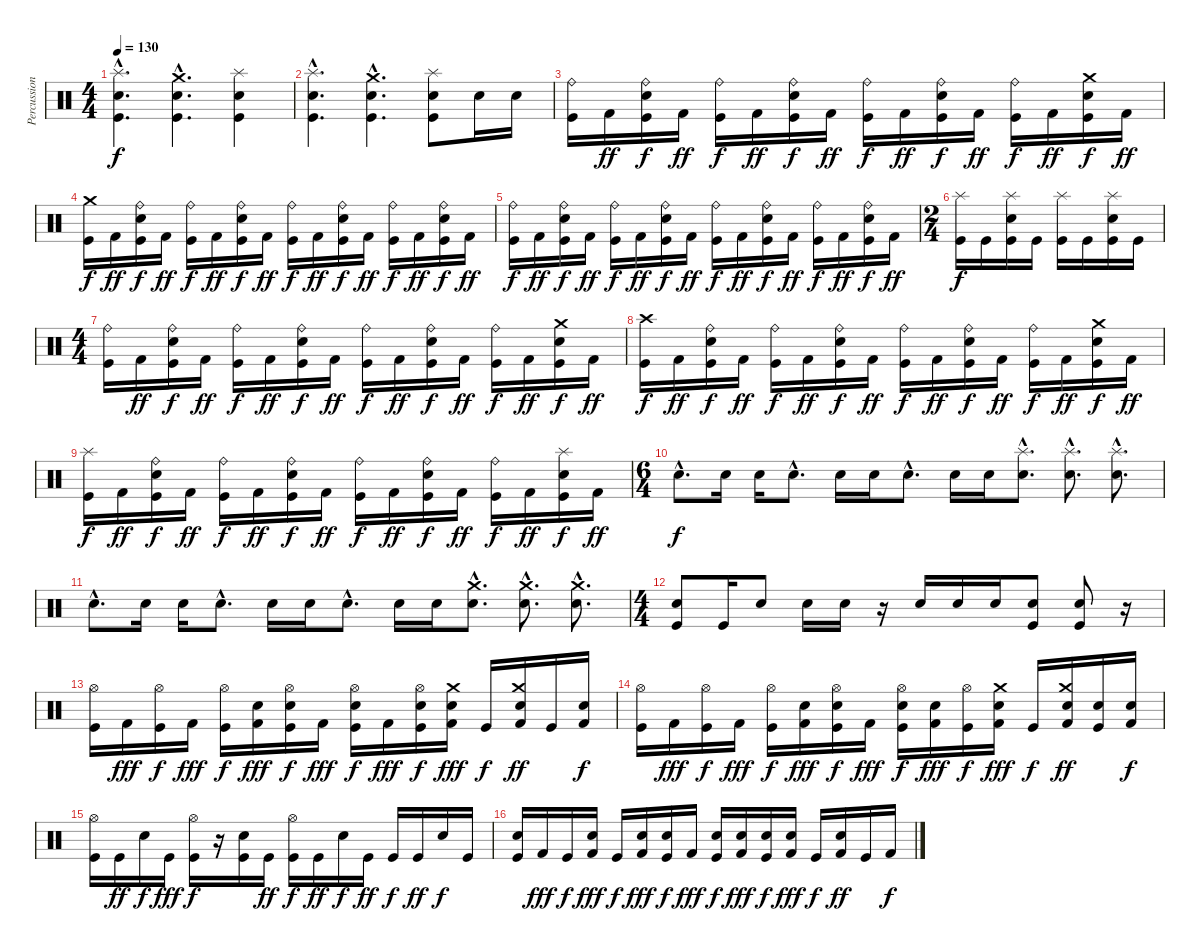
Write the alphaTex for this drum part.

\track ("Percussioni" "Percussion") {instrument percussion}
\staff {score}
\articulation defaults
\ts (4 4)
\tempo 130
\clef neutral
\ks c
("Splash (hit)"{hac} "Snare (hit) 2"{hac} "Kick (hit)"{hac}).4{d dy f} ("Crash medium (hit)"{hac} "Snare (hit) 2"{hac} "Kick (hit)"{hac}).4{d} ("Splash (hit)" "Snare (hit) 2" "Kick (hit)").4 |
("Splash (hit)"{hac} "Snare (hit) 2"{hac} "Kick (hit)"{hac}).4{d} ("Crash medium (hit)"{hac} "Snare (hit) 2"{hac} "Kick (hit)"{hac}).4{d} ("Splash (hit)" "Snare (hit) 2" "Kick (hit)").8 "Snare (hit) 2".16 "Snare (hit) 2".16 |
("Ride (bell)" "Kick (hit)").16 "Kick (hit) 2".16{dy ff} ("Ride (bell)" "Electric Snare (hit)" "Kick (hit)").16{dy f} "Kick (hit) 2".16{dy ff} ("Ride (bell)" "Kick (hit)").16{dy f} "Kick (hit) 2".16{dy ff} ("Ride (bell)" "Electric Snare (hit)" "Kick (hit)").16{dy f} "Kick (hit) 2".16{dy ff} ("Ride (bell)" "Kick (hit)").16{dy f} "Kick (hit) 2".16{dy ff} ("Ride (bell)" "Electric Snare (hit)" "Kick (hit)").16{dy f} "Kick (hit) 2".16{dy ff} ("Ride (bell)" "Kick (hit)").16{dy f} "Kick (hit) 2".16{dy ff} ("Crash medium (hit)" "Electric Snare (hit)" "Kick (hit)").16{dy f} "Kick (hit) 2".16{dy ff} |
("Crash medium (hit)" "Kick (hit)").16{dy f} "Kick (hit) 2".16{dy ff} ("Ride (bell)" "Electric Snare (hit)" "Kick (hit)").16{dy f} "Kick (hit) 2".16{dy ff} ("Ride (bell)" "Kick (hit)").16{dy f} "Kick (hit) 2".16{dy ff} ("Ride (bell)" "Electric Snare (hit)" "Kick (hit)").16{dy f} "Kick (hit) 2".16{dy ff} ("Ride (bell)" "Kick (hit)").16{dy f} "Kick (hit) 2".16{dy ff} ("Ride (bell)" "Electric Snare (hit)" "Kick (hit)").16{dy f} "Kick (hit) 2".16{dy ff} ("Ride (bell)" "Kick (hit)").16{dy f} "Kick (hit) 2".16{dy ff} ("Ride (bell)" "Electric Snare (hit)" "Kick (hit)").16{dy f} "Kick (hit) 2".16{dy ff} |
("Ride (bell)" "Kick (hit)").16{dy f} "Kick (hit) 2".16{dy ff} ("Ride (bell)" "Electric Snare (hit)" "Kick (hit)").16{dy f} "Kick (hit) 2".16{dy ff} ("Ride (bell)" "Kick (hit)").16{dy f} "Kick (hit) 2".16{dy ff} ("Ride (bell)" "Electric Snare (hit)" "Kick (hit)").16{dy f} "Kick (hit) 2".16{dy ff} ("Ride (bell)" "Kick (hit)").16{dy f} "Kick (hit) 2".16{dy ff} ("Ride (bell)" "Electric Snare (hit)" "Kick (hit)").16{dy f} "Kick (hit) 2".16{dy ff} ("Ride (bell)" "Kick (hit)").16{dy f} "Kick (hit) 2".16{dy ff} ("Ride (bell)" "Electric Snare (hit)" "Kick (hit)").16{dy f} "Kick (hit) 2".16{dy ff} |
\ts (2 4)
("Splash (hit)" "Kick (hit)").16{dy f} "Kick (hit)".16 ("Splash (hit)" "Electric Snare (hit)" "Kick (hit)").16 "Kick (hit)".16 ("Splash (hit)" "Kick (hit)").16 "Kick (hit)".16 ("Splash (hit)" "Electric Snare (hit)" "Kick (hit)").16 "Kick (hit)".16 |
\ts (4 4)
("Ride (bell)" "Kick (hit)").16 "Kick (hit) 2".16{dy ff} ("Ride (bell)" "Electric Snare (hit)" "Kick (hit)").16{dy f} "Kick (hit) 2".16{dy ff} ("Ride (bell)" "Kick (hit)").16{dy f} "Kick (hit) 2".16{dy ff} ("Ride (bell)" "Electric Snare (hit)" "Kick (hit)").16{dy f} "Kick (hit) 2".16{dy ff} ("Ride (bell)" "Kick (hit)").16{dy f} "Kick (hit) 2".16{dy ff} ("Ride (bell)" "Electric Snare (hit)" "Kick (hit)").16{dy f} "Kick (hit) 2".16{dy ff} ("Ride (bell)" "Kick (hit)").16{dy f} "Kick (hit) 2".16{dy ff} ("Crash medium (hit)" "Electric Snare (hit)" "Kick (hit)").16{dy f} "Kick (hit) 2".16{dy ff} |
("Crash high (hit)" "Kick (hit)").16{dy f} "Kick (hit) 2".16{dy ff} ("Ride (bell)" "Electric Snare (hit)" "Kick (hit)").16{dy f} "Kick (hit) 2".16{dy ff} ("Ride (bell)" "Kick (hit)").16{dy f} "Kick (hit) 2".16{dy ff} ("Ride (bell)" "Electric Snare (hit)" "Kick (hit)").16{dy f} "Kick (hit) 2".16{dy ff} ("Ride (bell)" "Kick (hit)").16{dy f} "Kick (hit) 2".16{dy ff} ("Ride (bell)" "Electric Snare (hit)" "Kick (hit)").16{dy f} "Kick (hit) 2".16{dy ff} ("Ride (bell)" "Kick (hit)").16{dy f} "Kick (hit) 2".16{dy ff} ("Crash medium (hit)" "Electric Snare (hit)" "Kick (hit)").16{dy f} "Kick (hit) 2".16{dy ff} |
("Splash (hit)" "Kick (hit)").16{dy f} "Kick (hit) 2".16{dy ff} ("Ride (bell)" "Electric Snare (hit)" "Kick (hit)").16{dy f} "Kick (hit) 2".16{dy ff} ("Ride (bell)" "Kick (hit)").16{dy f} "Kick (hit) 2".16{dy ff} ("Ride (bell)" "Electric Snare (hit)" "Kick (hit)").16{dy f} "Kick (hit) 2".16{dy ff} ("Ride (bell)" "Kick (hit)").16{dy f} "Kick (hit) 2".16{dy ff} ("Ride (bell)" "Electric Snare (hit)" "Kick (hit)").16{dy f} "Kick (hit) 2".16{dy ff} ("Ride (bell)" "Kick (hit)").16{dy f} "Kick (hit) 2".16{dy ff} ("Splash (hit)" "Electric Snare (hit)" "Kick (hit)").16{dy f} "Kick (hit) 2".16{dy ff} |
\ts (6 4)
"Electric Snare (hit)"{hac}.8{d dy f} "Electric Snare (hit)".16 "Electric Snare (hit)".16 "Electric Snare (hit)"{hac}.8{d} "Electric Snare (hit)".16 "Electric Snare (hit)".16 "Electric Snare (hit)"{hac}.8{d} "Electric Snare (hit)".16 "Electric Snare (hit)".16 ("Splash (hit)"{hac} "Electric Snare (hit)"{hac}).8{d} ("Splash (hit)"{hac} "Electric Snare (hit)"{hac}).8{d} ("Splash (hit)"{hac} "Electric Snare (hit)"{hac}).8{d} |
"Electric Snare (hit)"{hac}.8{d} "Electric Snare (hit)".16 "Electric Snare (hit)".16 "Electric Snare (hit)"{hac}.8{d} "Electric Snare (hit)".16 "Electric Snare (hit)".16 "Electric Snare (hit)"{hac}.8{d} "Electric Snare (hit)".16 "Electric Snare (hit)".16 ("Crash medium (hit)"{hac} "Electric Snare (hit)"{hac}).8{d} ("Crash medium (hit)"{hac} "Electric Snare (hit)"{hac}).8{d} ("Crash medium (hit)"{hac} "Electric Snare (hit)"{hac}).8{d} |
\ts (4 4)
("Snare (hit) 2" "Kick (hit)").8 "Kick (hit)".16 "Snare (hit) 2".8 "Snare (hit) 2".16 "Snare (hit) 2".16 r.16 "Snare (hit) 2".16 "Snare (hit) 2".16 "Snare (hit) 2".16 ("Snare (hit) 2" "Kick (hit)").8 ("Snare (hit) 2" "Kick (hit)").8 r.16 |
("Hi-Hat (open)" "Kick (hit)").16 "Kick (hit) 2".16{dy fff} ("Hi-Hat (open)" "Kick (hit)").16{dy f} "Kick (hit) 2".16{dy fff} ("Hi-Hat (open)" "Kick (hit)").16{dy f} ("Snare (hit) 2" "Kick (hit) 2").16{dy fff} ("Hi-Hat (open)" "Snare (hit) 2" "Kick (hit)").16{dy f} "Kick (hit) 2".16{dy fff} ("Hi-Hat (open)" "Snare (hit) 2" "Kick (hit)").16{dy f} "Kick (hit) 2".16{dy fff} ("Hi-Hat (open)" "Snare (hit) 2" "Kick (hit)").16{dy f} ("Crash medium (hit)" "Snare (hit) 2" "Kick (hit) 2").16{dy fff} "Kick (hit)".16{dy f} ("Crash medium (hit)" "Snare (hit) 2" "Kick (hit) 2").16{dy ff} "Kick (hit)".16 ("Snare (hit) 2" "Kick (hit) 2").16{dy f} |
("Hi-Hat (open)" "Kick (hit)").16 "Kick (hit) 2".16{dy fff} ("Hi-Hat (open)" "Kick (hit)").16{dy f} "Kick (hit) 2".16{dy fff} ("Hi-Hat (open)" "Kick (hit)").16{dy f} ("Snare (hit) 2" "Kick (hit) 2").16{dy fff} ("Hi-Hat (open)" "Snare (hit) 2" "Kick (hit)").16{dy f} "Kick (hit) 2".16{dy fff} ("Hi-Hat (open)" "Snare (hit) 2" "Kick (hit)").16{dy f} ("Snare (hit) 2" "Kick (hit) 2").16{dy fff} ("Hi-Hat (open)" "Kick (hit)").16{dy f} ("Crash medium (hit)" "Snare (hit) 2" "Kick (hit) 2").16{dy fff} "Kick (hit)".16{dy f} ("Crash medium (hit)" "Snare (hit) 2" "Kick (hit) 2").16{dy ff} ("Snare (hit) 2" "Kick (hit)").16 ("Snare (hit) 2" "Kick (hit) 2").16{dy f} |
("Hi-Hat (open)" "Kick (hit)").16 "Kick (hit)".16{dy ff} "Snare (hit) 2".16{dy f} "Kick (hit)".16{dy fff} ("Hi-Hat (open)" "Kick (hit)").16{dy f} r.16 ("Snare (hit) 2" "Kick (hit)").16 "Kick (hit)".16{dy ff} ("Hi-Hat (open)" "Kick (hit)").16{dy f} "Kick (hit)".16{dy ff} "Snare (hit) 2".16{dy f} "Kick (hit)".16{dy ff} "Kick (hit)".16{dy f} "Kick (hit)".16{dy ff} "Snare (hit) 2".16{dy f} "Kick (hit)".16 |
("Snare (hit) 2" "Kick (hit)").16 "Kick (hit) 2".16{dy fff} "Kick (hit)".16{dy f} ("Snare (hit) 2" "Kick (hit) 2").16{dy fff} "Kick (hit)".16{dy f} ("Snare (hit) 2" "Kick (hit) 2").16{dy fff} ("Snare (hit) 2" "Kick (hit)").16{dy f} "Kick (hit) 2".16{dy fff} ("Snare (hit) 2" "Kick (hit)").16{dy f} ("Snare (hit) 2" "Kick (hit) 2").16{dy fff} ("Snare (hit) 2" "Kick (hit)").16{dy f} ("Snare (hit) 2" "Kick (hit) 2").16{dy fff} "Kick (hit)".16{dy f} ("Snare (hit) 2" "Kick (hit) 2").16{dy ff} "Kick (hit)".16 "Kick (hit) 2".16{dy f}
